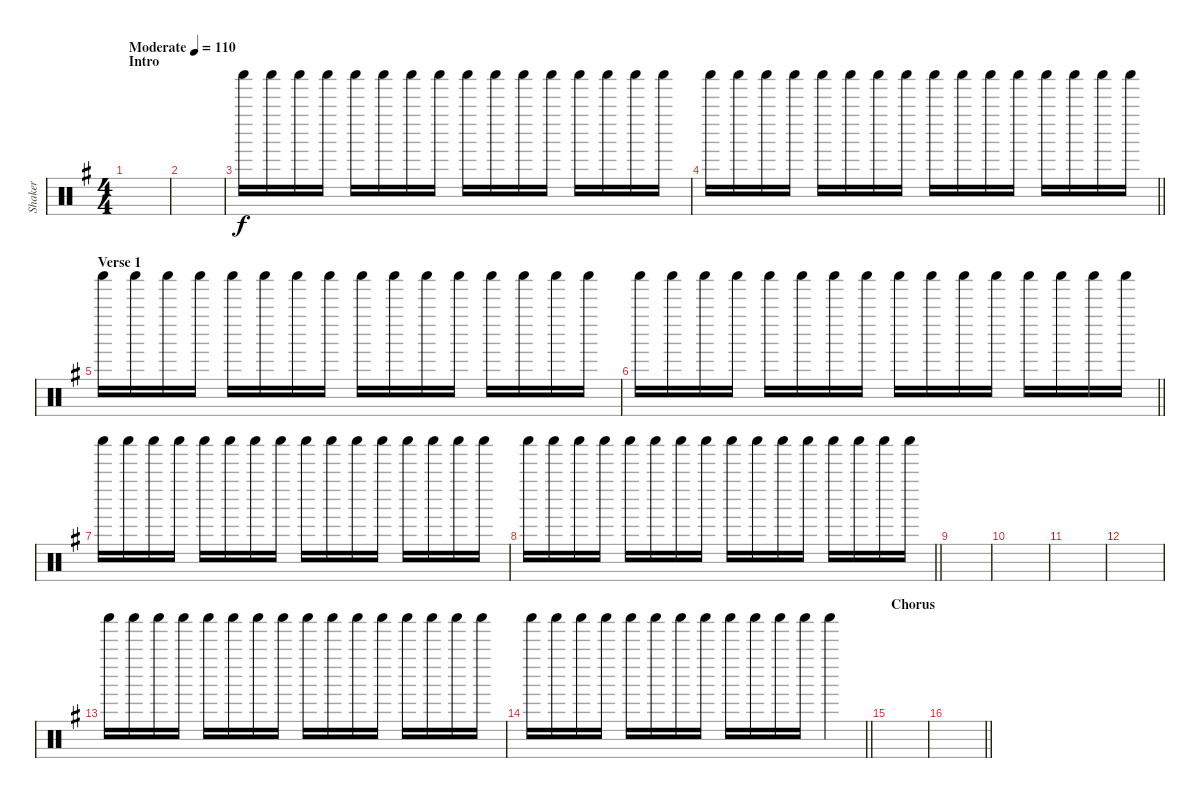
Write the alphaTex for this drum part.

\track ("Shaker" "Shaker") {instrument percussion}
\staff {score}
\articulation defaults
\ts (4 4)
\section ("" "Intro")
\tempo (110 "Moderate")
\clef neutral
\ks g
|
|
"Shaker (hit)".16 "Shaker (hit)".16 "Shaker (hit)".16 "Shaker (hit)".16 "Shaker (hit)".16 "Shaker (hit)".16 "Shaker (hit)".16 "Shaker (hit)".16 "Shaker (hit)".16 "Shaker (hit)".16 "Shaker (hit)".16 "Shaker (hit)".16 "Shaker (hit)".16 "Shaker (hit)".16 "Shaker (hit)".16 "Shaker (hit)".16 |
\barLineRight lightlight "Shaker (hit)".16 "Shaker (hit)".16 "Shaker (hit)".16 "Shaker (hit)".16 "Shaker (hit)".16 "Shaker (hit)".16 "Shaker (hit)".16 "Shaker (hit)".16 "Shaker (hit)".16 "Shaker (hit)".16 "Shaker (hit)".16 "Shaker (hit)".16 "Shaker (hit)".16 "Shaker (hit)".16 "Shaker (hit)".16 "Shaker (hit)".16
|
\section ("" "Verse 1")
"Shaker (hit)".16 "Shaker (hit)".16 "Shaker (hit)".16 "Shaker (hit)".16 "Shaker (hit)".16 "Shaker (hit)".16 "Shaker (hit)".16 "Shaker (hit)".16 "Shaker (hit)".16 "Shaker (hit)".16 "Shaker (hit)".16 "Shaker (hit)".16 "Shaker (hit)".16 "Shaker (hit)".16 "Shaker (hit)".16 "Shaker (hit)".16 |
\barLineRight lightlight "Shaker (hit)".16 "Shaker (hit)".16 "Shaker (hit)".16 "Shaker (hit)".16 "Shaker (hit)".16 "Shaker (hit)".16 "Shaker (hit)".16 "Shaker (hit)".16 "Shaker (hit)".16 "Shaker (hit)".16 "Shaker (hit)".16 "Shaker (hit)".16 "Shaker (hit)".16 "Shaker (hit)".16 "Shaker (hit)".16 "Shaker (hit)".16
|
"Shaker (hit)".16 "Shaker (hit)".16 "Shaker (hit)".16 "Shaker (hit)".16 "Shaker (hit)".16 "Shaker (hit)".16 "Shaker (hit)".16 "Shaker (hit)".16 "Shaker (hit)".16 "Shaker (hit)".16 "Shaker (hit)".16 "Shaker (hit)".16 "Shaker (hit)".16 "Shaker (hit)".16 "Shaker (hit)".16 "Shaker (hit)".16 |
\barLineRight lightlight "Shaker (hit)".16 "Shaker (hit)".16 "Shaker (hit)".16 "Shaker (hit)".16 "Shaker (hit)".16 "Shaker (hit)".16 "Shaker (hit)".16 "Shaker (hit)".16 "Shaker (hit)".16 "Shaker (hit)".16 "Shaker (hit)".16 "Shaker (hit)".16 "Shaker (hit)".16 "Shaker (hit)".16 "Shaker (hit)".16 "Shaker (hit)".16
|
|
|
|
|
"Shaker (hit)".16 "Shaker (hit)".16 "Shaker (hit)".16 "Shaker (hit)".16 "Shaker (hit)".16 "Shaker (hit)".16 "Shaker (hit)".16 "Shaker (hit)".16 "Shaker (hit)".16 "Shaker (hit)".16 "Shaker (hit)".16 "Shaker (hit)".16 "Shaker (hit)".16 "Shaker (hit)".16 "Shaker (hit)".16 "Shaker (hit)".16 |
\barLineRight lightlight "Shaker (hit)".16 "Shaker (hit)".16 "Shaker (hit)".16 "Shaker (hit)".16 "Shaker (hit)".16 "Shaker (hit)".16 "Shaker (hit)".16 "Shaker (hit)".16 "Shaker (hit)".16 "Shaker (hit)".16 "Shaker (hit)".16 "Shaker (hit)".16 "Shaker (hit)".4
|
\section ("" "Chorus")
|
\barLineRight lightlight
